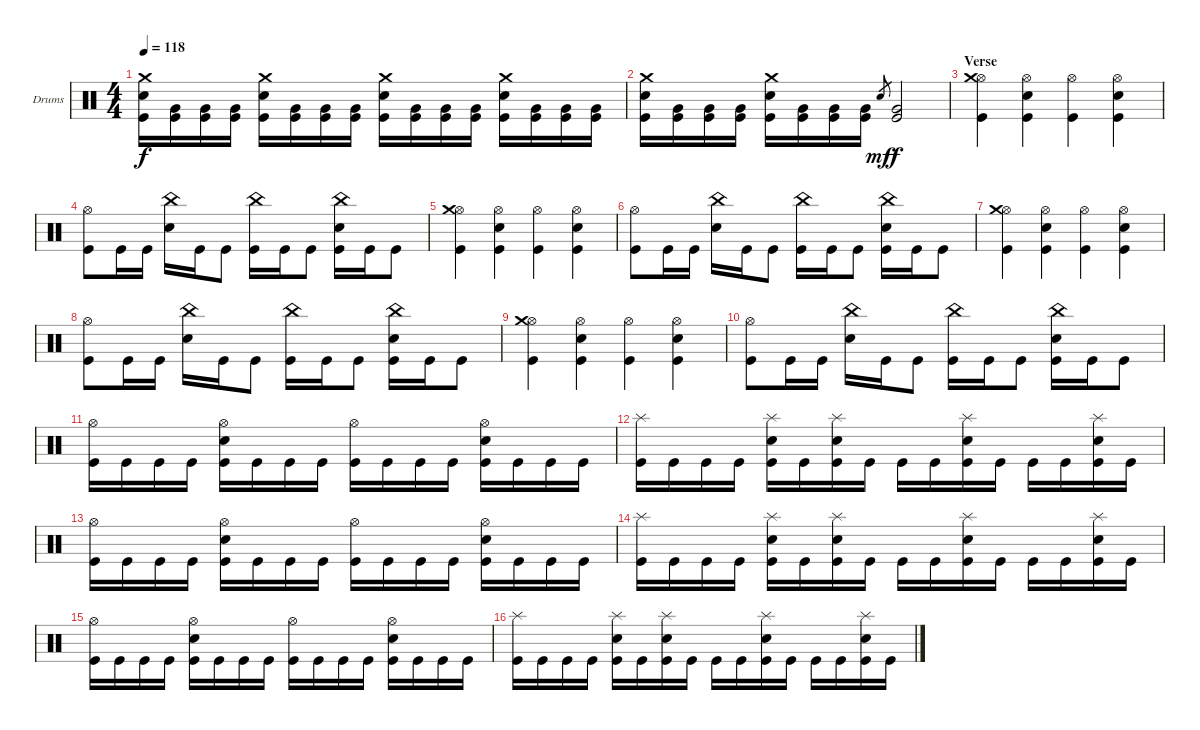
\bracketExtendMode groupsimilarinstruments
\firstSystemTrackNameOrientation horizontal
\otherSystemsTrackNameOrientation horizontal
\track ("Drumkit" "Drums") {solo instrument percussion}
\staff {score}
\articulation defaults
\ts (4 4)
\tempo 118
\clef neutral
\ks c
("Kick (hit)" "Snare (hit) 2" "Crash medium (hit)").16{dy f} ("Kick (hit)" "Very Low Tom (hit)").16 ("Kick (hit)" "Very Low Tom (hit)").16 ("Kick (hit)" "Very Low Tom (hit)").16 ("Kick (hit)" "Snare (hit) 2" "Crash medium (hit)").16 ("Kick (hit)" "Very Low Tom (hit)").16 ("Kick (hit)" "Very Low Tom (hit)").16 ("Kick (hit)" "Very Low Tom (hit)").16 ("Kick (hit)" "Snare (hit) 2" "Crash medium (hit)").16 ("Kick (hit)" "Very Low Tom (hit)").16 ("Kick (hit)" "Very Low Tom (hit)").16 ("Kick (hit)" "Very Low Tom (hit)").16 ("Kick (hit)" "Snare (hit) 2" "Crash medium (hit)").16 ("Kick (hit)" "Very Low Tom (hit)").16 ("Kick (hit)" "Very Low Tom (hit)").16 ("Kick (hit)" "Very Low Tom (hit)").16 |
("Kick (hit)" "Snare (hit) 2" "Crash medium (hit)").16 ("Kick (hit)" "Very Low Tom (hit)").16 ("Kick (hit)" "Very Low Tom (hit)").16 ("Kick (hit)" "Very Low Tom (hit)").16 ("Kick (hit)" "Snare (hit) 2" "Crash medium (hit)").16 ("Kick (hit)" "Very Low Tom (hit)").16 ("Kick (hit)" "Very Low Tom (hit)").16 ("Kick (hit)" "Very Low Tom (hit)").16 "Snare (hit) 2".8{gr dy mf} ("Kick (hit)" "Very Low Tom (hit)").2{dy f} |
\section ("" "Verse")
("Kick (hit)" "Hi-Hat (open)" "Crash medium (hit)").4 ("Kick (hit)" "Snare (hit) 2" "Hi-Hat (open)").4 ("Kick (hit)" "Hi-Hat (open)").4 ("Kick (hit)" "Snare (hit) 2" "Hi-Hat (open)").4 |
("Kick (hit)" "Hi-Hat (open)").8 "Kick (hit)".16 "Kick (hit)".16 ("Snare (hit) 2" "China (hit)").16 "Kick (hit)".16 "Kick (hit)".8 ("Kick (hit)" "China (hit)").16 "Kick (hit)".16 "Kick (hit)".8 ("Kick (hit)" "Snare (hit) 2" "China (hit)").16 "Kick (hit)".16 "Kick (hit)".8 |
("Kick (hit)" "Hi-Hat (open)" "Crash medium (hit)").4 ("Kick (hit)" "Snare (hit) 2" "Hi-Hat (open)").4 ("Kick (hit)" "Hi-Hat (open)").4 ("Kick (hit)" "Snare (hit) 2" "Hi-Hat (open)").4 |
("Kick (hit)" "Hi-Hat (open)").8 "Kick (hit)".16 "Kick (hit)".16 ("Snare (hit) 2" "China (hit)").16 "Kick (hit)".16 "Kick (hit)".8 ("Kick (hit)" "China (hit)").16 "Kick (hit)".16 "Kick (hit)".8 ("Kick (hit)" "Snare (hit) 2" "China (hit)").16 "Kick (hit)".16 "Kick (hit)".8 |
("Kick (hit)" "Hi-Hat (open)" "Crash medium (hit)").4 ("Kick (hit)" "Snare (hit) 2" "Hi-Hat (open)").4 ("Kick (hit)" "Hi-Hat (open)").4 ("Kick (hit)" "Snare (hit) 2" "Hi-Hat (open)").4 |
("Kick (hit)" "Hi-Hat (open)").8 "Kick (hit)".16 "Kick (hit)".16 ("Snare (hit) 2" "China (hit)").16 "Kick (hit)".16 "Kick (hit)".8 ("Kick (hit)" "China (hit)").16 "Kick (hit)".16 "Kick (hit)".8 ("Kick (hit)" "Snare (hit) 2" "China (hit)").16 "Kick (hit)".16 "Kick (hit)".8 |
("Kick (hit)" "Hi-Hat (open)" "Crash medium (hit)").4 ("Kick (hit)" "Snare (hit) 2" "Hi-Hat (open)").4 ("Kick (hit)" "Hi-Hat (open)").4 ("Kick (hit)" "Snare (hit) 2" "Hi-Hat (open)").4 |
("Kick (hit)" "Hi-Hat (open)").8 "Kick (hit)".16 "Kick (hit)".16 ("Snare (hit) 2" "China (hit)").16 "Kick (hit)".16 "Kick (hit)".8 ("Kick (hit)" "China (hit)").16 "Kick (hit)".16 "Kick (hit)".8 ("Kick (hit)" "Snare (hit) 2" "China (hit)").16 "Kick (hit)".16 "Kick (hit)".8 |
("Kick (hit)" "Hi-Hat (open)").16 "Kick (hit)".16 "Kick (hit)".16 "Kick (hit)".16 ("Kick (hit)" "Snare (hit) 2" "Hi-Hat (open)").16 "Kick (hit)".16 "Kick (hit)".16 "Kick (hit)".16 ("Kick (hit)" "Hi-Hat (open)").16 "Kick (hit)".16 "Kick (hit)".16 "Kick (hit)".16 ("Kick (hit)" "Snare (hit) 2" "Hi-Hat (open)").16 "Kick (hit)".16 "Kick (hit)".16 "Kick (hit)".16 |
("Kick (hit)" "Splash (hit)").16 "Kick (hit)".16 "Kick (hit)".16 "Kick (hit)".16 ("Kick (hit)" "Splash (hit)" "Snare (hit) 2").16 "Kick (hit)".16 ("Kick (hit)" "Splash (hit)" "Snare (hit) 2").16 "Kick (hit)".16 "Kick (hit)".16 "Kick (hit)".16 ("Kick (hit)" "Splash (hit)" "Snare (hit) 2").16 "Kick (hit)".16 "Kick (hit)".16 "Kick (hit)".16 ("Kick (hit)" "Splash (hit)" "Snare (hit) 2").16 "Kick (hit)".16 |
("Kick (hit)" "Hi-Hat (open)").16 "Kick (hit)".16 "Kick (hit)".16 "Kick (hit)".16 ("Kick (hit)" "Snare (hit) 2" "Hi-Hat (open)").16 "Kick (hit)".16 "Kick (hit)".16 "Kick (hit)".16 ("Kick (hit)" "Hi-Hat (open)").16 "Kick (hit)".16 "Kick (hit)".16 "Kick (hit)".16 ("Kick (hit)" "Snare (hit) 2" "Hi-Hat (open)").16 "Kick (hit)".16 "Kick (hit)".16 "Kick (hit)".16 |
("Kick (hit)" "Splash (hit)").16 "Kick (hit)".16 "Kick (hit)".16 "Kick (hit)".16 ("Kick (hit)" "Splash (hit)" "Snare (hit) 2").16 "Kick (hit)".16 ("Kick (hit)" "Splash (hit)" "Snare (hit) 2").16 "Kick (hit)".16 "Kick (hit)".16 "Kick (hit)".16 ("Kick (hit)" "Splash (hit)" "Snare (hit) 2").16 "Kick (hit)".16 "Kick (hit)".16 "Kick (hit)".16 ("Kick (hit)" "Splash (hit)" "Snare (hit) 2").16 "Kick (hit)".16 |
("Kick (hit)" "Hi-Hat (open)").16 "Kick (hit)".16 "Kick (hit)".16 "Kick (hit)".16 ("Kick (hit)" "Snare (hit) 2" "Hi-Hat (open)").16 "Kick (hit)".16 "Kick (hit)".16 "Kick (hit)".16 ("Kick (hit)" "Hi-Hat (open)").16 "Kick (hit)".16 "Kick (hit)".16 "Kick (hit)".16 ("Kick (hit)" "Snare (hit) 2" "Hi-Hat (open)").16 "Kick (hit)".16 "Kick (hit)".16 "Kick (hit)".16 |
("Kick (hit)" "Splash (hit)").16 "Kick (hit)".16 "Kick (hit)".16 "Kick (hit)".16 ("Kick (hit)" "Splash (hit)" "Snare (hit) 2").16 "Kick (hit)".16 ("Kick (hit)" "Splash (hit)" "Snare (hit) 2").16 "Kick (hit)".16 "Kick (hit)".16 "Kick (hit)".16 ("Kick (hit)" "Splash (hit)" "Snare (hit) 2").16 "Kick (hit)".16 "Kick (hit)".16 "Kick (hit)".16 ("Kick (hit)" "Splash (hit)" "Snare (hit) 2").16 "Kick (hit)".16
